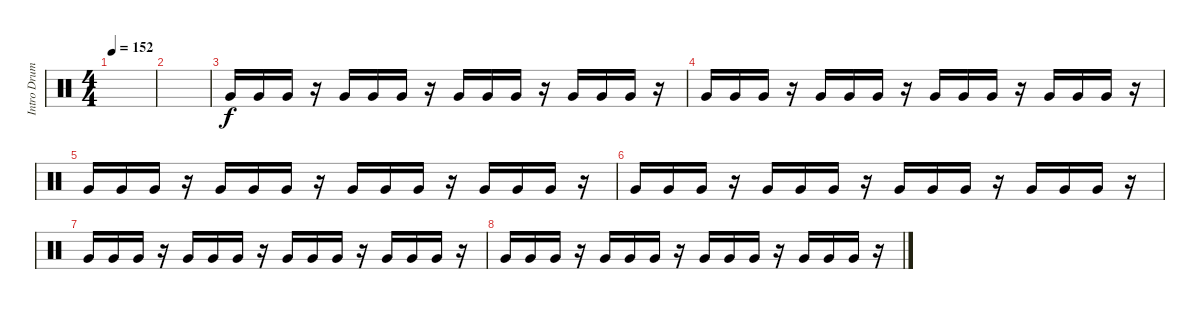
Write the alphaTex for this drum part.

\track ("Intro Drums " "Intro Drum") {instrument percussion}
\staff {score}
\articulation defaults
\ts (4 4)
\tempo 152
\clef neutral
\ks c
|
|
"Very Low Tom (hit)".16{volume 6} "Very Low Tom (hit)".16 "Very Low Tom (hit)".16 r.16 "Very Low Tom (hit)".16 "Very Low Tom (hit)".16 "Very Low Tom (hit)".16 r.16 "Very Low Tom (hit)".16 "Very Low Tom (hit)".16 "Very Low Tom (hit)".16 r.16 "Very Low Tom (hit)".16 "Very Low Tom (hit)".16 "Very Low Tom (hit)".16 r.16 |
"Very Low Tom (hit)".16{volume 7} "Very Low Tom (hit)".16 "Very Low Tom (hit)".16 r.16 "Very Low Tom (hit)".16 "Very Low Tom (hit)".16 "Very Low Tom (hit)".16 r.16 "Very Low Tom (hit)".16 "Very Low Tom (hit)".16 "Very Low Tom (hit)".16 r.16 "Very Low Tom (hit)".16 "Very Low Tom (hit)".16 "Very Low Tom (hit)".16 r.16 |
"Very Low Tom (hit)".16{volume 8} "Very Low Tom (hit)".16 "Very Low Tom (hit)".16 r.16 "Very Low Tom (hit)".16 "Very Low Tom (hit)".16 "Very Low Tom (hit)".16 r.16 "Very Low Tom (hit)".16 "Very Low Tom (hit)".16 "Very Low Tom (hit)".16 r.16 "Very Low Tom (hit)".16 "Very Low Tom (hit)".16 "Very Low Tom (hit)".16 r.16 |
"Very Low Tom (hit)".16{volume 9} "Very Low Tom (hit)".16 "Very Low Tom (hit)".16 r.16 "Very Low Tom (hit)".16 "Very Low Tom (hit)".16 "Very Low Tom (hit)".16 r.16 "Very Low Tom (hit)".16 "Very Low Tom (hit)".16 "Very Low Tom (hit)".16 r.16 "Very Low Tom (hit)".16 "Very Low Tom (hit)".16 "Very Low Tom (hit)".16 r.16 |
"Very Low Tom (hit)".16{volume 10} "Very Low Tom (hit)".16 "Very Low Tom (hit)".16 r.16 "Very Low Tom (hit)".16 "Very Low Tom (hit)".16 "Very Low Tom (hit)".16 r.16 "Very Low Tom (hit)".16 "Very Low Tom (hit)".16 "Very Low Tom (hit)".16 r.16 "Very Low Tom (hit)".16 "Very Low Tom (hit)".16 "Very Low Tom (hit)".16 r.16 |
"Very Low Tom (hit)".16{volume 11} "Very Low Tom (hit)".16 "Very Low Tom (hit)".16 r.16 "Very Low Tom (hit)".16 "Very Low Tom (hit)".16 "Very Low Tom (hit)".16 r.16 "Very Low Tom (hit)".16 "Very Low Tom (hit)".16 "Very Low Tom (hit)".16 r.16 "Very Low Tom (hit)".16 "Very Low Tom (hit)".16 "Very Low Tom (hit)".16 r.16
